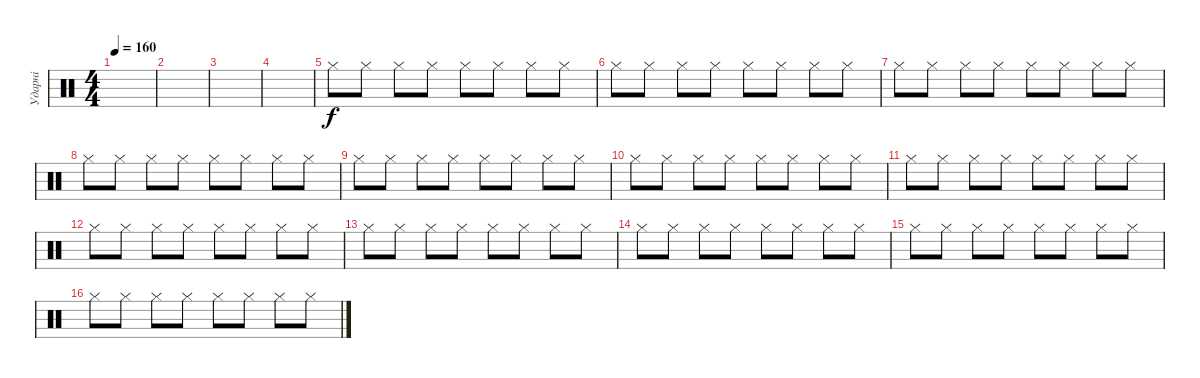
\track ("Ударні" "Ударні") {instrument percussion}
\staff {score}
\articulation defaults
\ts (4 4)
\tempo 160
\clef neutral
\ks c
|
|
|
|
"Hi-Hat (closed)".8 "Hi-Hat (closed)".8 "Hi-Hat (closed)".8 "Hi-Hat (closed)".8 "Hi-Hat (closed)".8 "Hi-Hat (closed)".8 "Hi-Hat (closed)".8 "Hi-Hat (closed)".8 |
"Hi-Hat (closed)".8 "Hi-Hat (closed)".8 "Hi-Hat (closed)".8 "Hi-Hat (closed)".8 "Hi-Hat (closed)".8 "Hi-Hat (closed)".8 "Hi-Hat (closed)".8 "Hi-Hat (closed)".8 |
"Hi-Hat (closed)".8 "Hi-Hat (closed)".8 "Hi-Hat (closed)".8 "Hi-Hat (closed)".8 "Hi-Hat (closed)".8 "Hi-Hat (closed)".8 "Hi-Hat (closed)".8 "Hi-Hat (closed)".8 |
"Hi-Hat (closed)".8 "Hi-Hat (closed)".8 "Hi-Hat (closed)".8 "Hi-Hat (closed)".8 "Hi-Hat (closed)".8 "Hi-Hat (closed)".8 "Hi-Hat (closed)".8 "Hi-Hat (closed)".8 |
"Hi-Hat (closed)".8 "Hi-Hat (closed)".8 "Hi-Hat (closed)".8 "Hi-Hat (closed)".8 "Hi-Hat (closed)".8 "Hi-Hat (closed)".8 "Hi-Hat (closed)".8 "Hi-Hat (closed)".8 |
"Hi-Hat (closed)".8 "Hi-Hat (closed)".8 "Hi-Hat (closed)".8 "Hi-Hat (closed)".8 "Hi-Hat (closed)".8 "Hi-Hat (closed)".8 "Hi-Hat (closed)".8 "Hi-Hat (closed)".8 |
"Hi-Hat (closed)".8 "Hi-Hat (closed)".8 "Hi-Hat (closed)".8 "Hi-Hat (closed)".8 "Hi-Hat (closed)".8 "Hi-Hat (closed)".8 "Hi-Hat (closed)".8 "Hi-Hat (closed)".8 |
"Hi-Hat (closed)".8 "Hi-Hat (closed)".8 "Hi-Hat (closed)".8 "Hi-Hat (closed)".8 "Hi-Hat (closed)".8 "Hi-Hat (closed)".8 "Hi-Hat (closed)".8 "Hi-Hat (closed)".8 |
"Hi-Hat (closed)".8 "Hi-Hat (closed)".8 "Hi-Hat (closed)".8 "Hi-Hat (closed)".8 "Hi-Hat (closed)".8 "Hi-Hat (closed)".8 "Hi-Hat (closed)".8 "Hi-Hat (closed)".8 |
"Hi-Hat (closed)".8 "Hi-Hat (closed)".8 "Hi-Hat (closed)".8 "Hi-Hat (closed)".8 "Hi-Hat (closed)".8 "Hi-Hat (closed)".8 "Hi-Hat (closed)".8 "Hi-Hat (closed)".8 |
"Hi-Hat (closed)".8 "Hi-Hat (closed)".8 "Hi-Hat (closed)".8 "Hi-Hat (closed)".8 "Hi-Hat (closed)".8 "Hi-Hat (closed)".8 "Hi-Hat (closed)".8 "Hi-Hat (closed)".8 |
"Hi-Hat (closed)".8 "Hi-Hat (closed)".8 "Hi-Hat (closed)".8 "Hi-Hat (closed)".8 "Hi-Hat (closed)".8 "Hi-Hat (closed)".8 "Hi-Hat (closed)".8 "Hi-Hat (closed)".8
